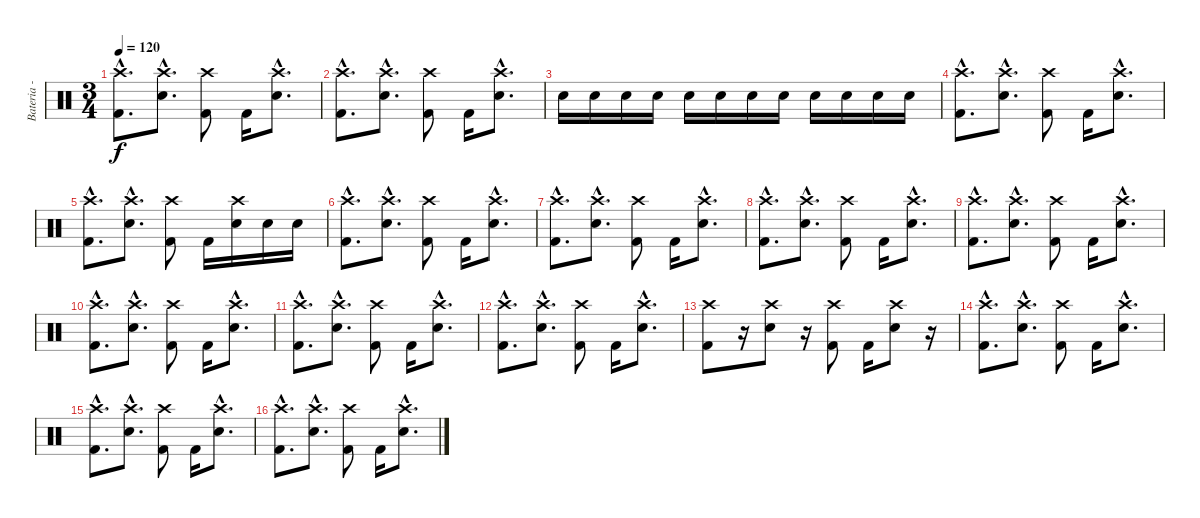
\track ("Bateria - Larzon" "Bateria - ") {instrument percussion}
\staff {score}
\articulation defaults
\ts (3 4)
\tempo 120
\clef neutral
\ks c
("Kick (hit) 2"{hac} "Crash high (hit)"{hac}).8{d dy f} ("Snare (hit) 2"{hac} "Crash high (hit)"{hac}).8{d} ("Kick (hit) 2" "Crash high (hit)").8 "Kick (hit) 2".16 ("Snare (hit) 2"{hac} "Crash high (hit)"{hac}).8{d} |
("Kick (hit) 2"{hac} "Crash high (hit)"{hac}).8{d} ("Snare (hit) 2"{hac} "Crash high (hit)"{hac}).8{d} ("Kick (hit) 2" "Crash high (hit)").8 "Kick (hit) 2".16 ("Snare (hit) 2"{hac} "Crash high (hit)"{hac}).8{d} |
"Snare (hit) 2".16 "Snare (hit) 2".16 "Snare (hit) 2".16 "Snare (hit) 2".16 "Snare (hit) 2".16 "Snare (hit) 2".16 "Snare (hit) 2".16 "Snare (hit) 2".16 "Snare (hit) 2".16 "Snare (hit) 2".16 "Snare (hit) 2".16 "Snare (hit) 2".16 |
("Kick (hit) 2"{hac} "Crash high (hit)"{hac}).8{d} ("Snare (hit) 2"{hac} "Crash high (hit)"{hac}).8{d} ("Kick (hit) 2" "Crash high (hit)").8 "Kick (hit) 2".16 ("Snare (hit) 2"{hac} "Crash high (hit)"{hac}).8{d} |
("Kick (hit) 2"{hac} "Crash high (hit)"{hac}).8{d} ("Snare (hit) 2"{hac} "Crash high (hit)"{hac}).8{d} ("Kick (hit) 2" "Crash high (hit)").8 "Kick (hit) 2".16 ("Snare (hit) 2" "Crash high (hit)").16 "Snare (hit) 2".16 "Snare (hit) 2".16 |
("Kick (hit) 2"{hac} "Crash high (hit)"{hac}).8{d} ("Snare (hit) 2"{hac} "Crash high (hit)"{hac}).8{d} ("Kick (hit) 2" "Crash high (hit)").8 "Kick (hit) 2".16 ("Snare (hit) 2"{hac} "Crash high (hit)"{hac}).8{d} |
("Kick (hit) 2"{hac} "Crash high (hit)"{hac}).8{d} ("Snare (hit) 2"{hac} "Crash high (hit)"{hac}).8{d} ("Kick (hit) 2" "Crash high (hit)").8 "Kick (hit) 2".16 ("Snare (hit) 2"{hac} "Crash high (hit)"{hac}).8{d} |
("Kick (hit) 2"{hac} "Crash high (hit)"{hac}).8{d} ("Snare (hit) 2"{hac} "Crash high (hit)"{hac}).8{d} ("Kick (hit) 2" "Crash high (hit)").8 "Kick (hit) 2".16 ("Snare (hit) 2"{hac} "Crash high (hit)"{hac}).8{d} |
("Kick (hit) 2"{hac} "Crash high (hit)"{hac}).8{d} ("Snare (hit) 2"{hac} "Crash high (hit)"{hac}).8{d} ("Kick (hit) 2" "Crash high (hit)").8 "Kick (hit) 2".16 ("Snare (hit) 2"{hac} "Crash high (hit)"{hac}).8{d} |
("Kick (hit) 2"{hac} "Crash high (hit)"{hac}).8{d} ("Snare (hit) 2"{hac} "Crash high (hit)"{hac}).8{d} ("Kick (hit) 2" "Crash high (hit)").8 "Kick (hit) 2".16 ("Snare (hit) 2"{hac} "Crash high (hit)"{hac}).8{d} |
("Kick (hit) 2"{hac} "Crash high (hit)"{hac}).8{d} ("Snare (hit) 2"{hac} "Crash high (hit)"{hac}).8{d} ("Kick (hit) 2" "Crash high (hit)").8 "Kick (hit) 2".16 ("Snare (hit) 2"{hac} "Crash high (hit)"{hac}).8{d} |
("Kick (hit) 2"{hac} "Crash high (hit)"{hac}).8{d} ("Snare (hit) 2"{hac} "Crash high (hit)"{hac}).8{d} ("Kick (hit) 2" "Crash high (hit)").8 "Kick (hit) 2".16 ("Snare (hit) 2"{hac} "Crash high (hit)"{hac}).8{d} |
("Kick (hit) 2" "Crash high (hit)").8 r.16 ("Snare (hit) 2" "Crash high (hit)").8 r.16 ("Kick (hit) 2" "Crash high (hit)").8 "Kick (hit) 2".16 ("Snare (hit) 2" "Crash high (hit)").8 r.16 |
("Kick (hit) 2"{hac} "Crash high (hit)"{hac}).8{d} ("Snare (hit) 2"{hac} "Crash high (hit)"{hac}).8{d} ("Kick (hit) 2" "Crash high (hit)").8 "Kick (hit) 2".16 ("Snare (hit) 2"{hac} "Crash high (hit)"{hac}).8{d} |
("Kick (hit) 2"{hac} "Crash high (hit)"{hac}).8{d} ("Snare (hit) 2"{hac} "Crash high (hit)"{hac}).8{d} ("Kick (hit) 2" "Crash high (hit)").8 "Kick (hit) 2".16 ("Snare (hit) 2"{hac} "Crash high (hit)"{hac}).8{d} |
("Kick (hit) 2"{hac} "Crash high (hit)"{hac}).8{d} ("Snare (hit) 2"{hac} "Crash high (hit)"{hac}).8{d} ("Kick (hit) 2" "Crash high (hit)").8 "Kick (hit) 2".16 ("Snare (hit) 2"{hac} "Crash high (hit)"{hac}).8{d}
